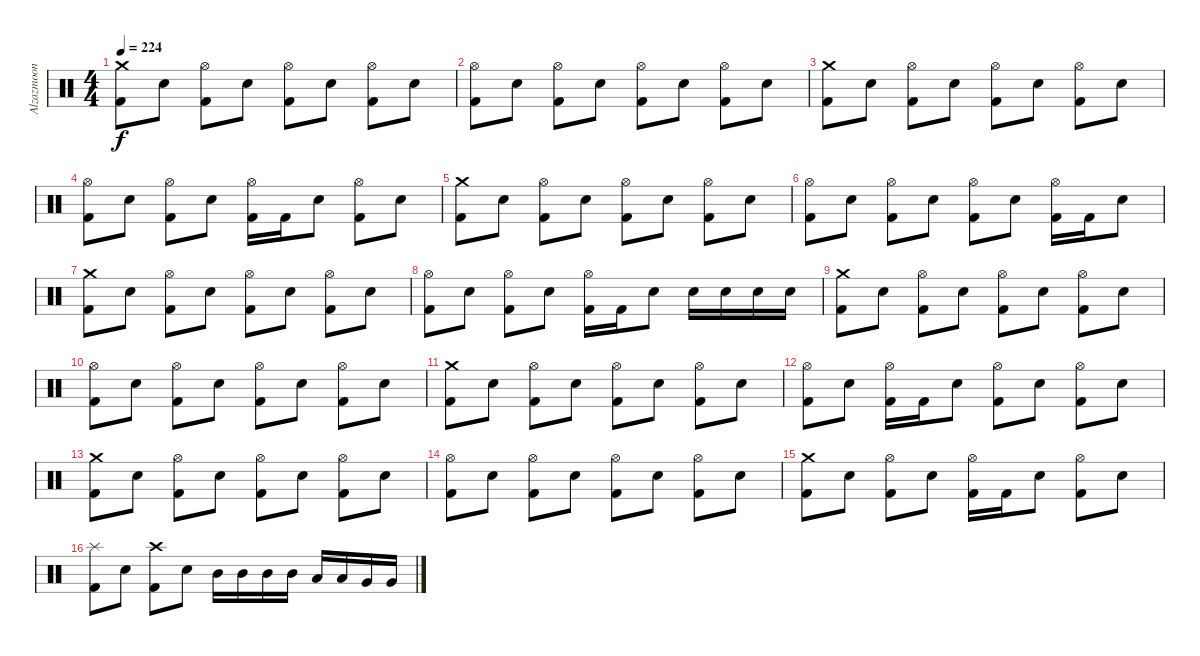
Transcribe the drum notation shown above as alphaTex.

\track ("Alzazmoon" "Alzazmoon") {instrument percussion}
\staff {score}
\articulation defaults
\ts (4 4)
\tempo 224
\clef neutral
\ks c
("Crash medium (hit)" "Kick (hit) 2").8{dy f} "Snare (hit) 2".8 ("Hi-Hat (open)" "Kick (hit) 2").8 "Snare (hit) 2".8 ("Hi-Hat (open)" "Kick (hit) 2").8 "Snare (hit) 2".8 ("Hi-Hat (open)" "Kick (hit) 2").8 "Snare (hit) 2".8 |
("Hi-Hat (open)" "Kick (hit) 2").8 "Snare (hit) 2".8 ("Hi-Hat (open)" "Kick (hit) 2").8 "Snare (hit) 2".8 ("Hi-Hat (open)" "Kick (hit) 2").8 "Snare (hit) 2".8 ("Hi-Hat (open)" "Kick (hit) 2").8 "Snare (hit) 2".8 |
("Crash medium (hit)" "Kick (hit) 2").8 "Snare (hit) 2".8 ("Hi-Hat (open)" "Kick (hit) 2").8 "Snare (hit) 2".8 ("Hi-Hat (open)" "Kick (hit) 2").8 "Snare (hit) 2".8 ("Hi-Hat (open)" "Kick (hit) 2").8 "Snare (hit) 2".8 |
("Hi-Hat (open)" "Kick (hit) 2").8 "Snare (hit) 2".8 ("Hi-Hat (open)" "Kick (hit) 2").8 "Snare (hit) 2".8 ("Hi-Hat (open)" "Kick (hit) 2").16 "Kick (hit) 2".16 "Snare (hit) 2".8 ("Hi-Hat (open)" "Kick (hit) 2").8 "Snare (hit) 2".8 |
("Crash medium (hit)" "Kick (hit) 2").8 "Snare (hit) 2".8 ("Hi-Hat (open)" "Kick (hit) 2").8 "Snare (hit) 2".8 ("Hi-Hat (open)" "Kick (hit) 2").8 "Snare (hit) 2".8 ("Hi-Hat (open)" "Kick (hit) 2").8 "Snare (hit) 2".8 |
("Hi-Hat (open)" "Kick (hit) 2").8 "Snare (hit) 2".8 ("Hi-Hat (open)" "Kick (hit) 2").8 "Snare (hit) 2".8 ("Hi-Hat (open)" "Kick (hit) 2").8 "Snare (hit) 2".8 ("Hi-Hat (open)" "Kick (hit) 2").16 "Kick (hit) 2".16 "Snare (hit) 2".8 |
("Crash medium (hit)" "Kick (hit) 2").8 "Snare (hit) 2".8 ("Hi-Hat (open)" "Kick (hit) 2").8 "Snare (hit) 2".8 ("Hi-Hat (open)" "Kick (hit) 2").8 "Snare (hit) 2".8 ("Hi-Hat (open)" "Kick (hit) 2").8 "Snare (hit) 2".8 |
("Hi-Hat (open)" "Kick (hit) 2").8 "Snare (hit) 2".8 ("Hi-Hat (open)" "Kick (hit) 2").8 "Snare (hit) 2".8 ("Hi-Hat (open)" "Kick (hit) 2").16 "Kick (hit) 2".16 "Snare (hit) 2".8 "Snare (hit) 2".16 "Snare (hit) 2".16 "Snare (hit) 2".16 "Snare (hit) 2".16 |
("Crash medium (hit)" "Kick (hit) 2").8 "Snare (hit) 2".8 ("Hi-Hat (open)" "Kick (hit) 2").8 "Snare (hit) 2".8 ("Hi-Hat (open)" "Kick (hit) 2").8 "Snare (hit) 2".8 ("Hi-Hat (open)" "Kick (hit) 2").8 "Snare (hit) 2".8 |
("Hi-Hat (open)" "Kick (hit) 2").8 "Snare (hit) 2".8 ("Hi-Hat (open)" "Kick (hit) 2").8 "Snare (hit) 2".8 ("Hi-Hat (open)" "Kick (hit) 2").8 "Snare (hit) 2".8 ("Hi-Hat (open)" "Kick (hit) 2").8 "Snare (hit) 2".8 |
("Crash medium (hit)" "Kick (hit) 2").8 "Snare (hit) 2".8 ("Hi-Hat (open)" "Kick (hit) 2").8 "Snare (hit) 2".8 ("Hi-Hat (open)" "Kick (hit) 2").8 "Snare (hit) 2".8 ("Hi-Hat (open)" "Kick (hit) 2").8 "Snare (hit) 2".8 |
("Hi-Hat (open)" "Kick (hit) 2").8 "Snare (hit) 2".8 ("Hi-Hat (open)" "Kick (hit) 2").16 "Kick (hit) 2".16 "Snare (hit) 2".8 ("Hi-Hat (open)" "Kick (hit) 2").8 "Snare (hit) 2".8 ("Hi-Hat (open)" "Kick (hit) 2").8 "Snare (hit) 2".8 |
("Crash medium (hit)" "Kick (hit) 2").8 "Snare (hit) 2".8 ("Hi-Hat (open)" "Kick (hit) 2").8 "Snare (hit) 2".8 ("Hi-Hat (open)" "Kick (hit) 2").8 "Snare (hit) 2".8 ("Hi-Hat (open)" "Kick (hit) 2").8 "Snare (hit) 2".8 |
("Hi-Hat (open)" "Kick (hit) 2").8 "Snare (hit) 2".8 ("Hi-Hat (open)" "Kick (hit) 2").8 "Snare (hit) 2".8 ("Hi-Hat (open)" "Kick (hit) 2").8 "Snare (hit) 2".8 ("Hi-Hat (open)" "Kick (hit) 2").8 "Snare (hit) 2".8 |
("Crash medium (hit)" "Kick (hit) 2").8 "Snare (hit) 2".8 ("Hi-Hat (open)" "Kick (hit) 2").8 "Snare (hit) 2".8 ("Hi-Hat (open)" "Kick (hit) 2").16 "Kick (hit) 2".16 "Snare (hit) 2".8 ("Hi-Hat (open)" "Kick (hit) 2").8 "Snare (hit) 2".8 |
("Splash (hit)" "Kick (hit) 2").8 "Snare (hit) 2".8 ("Crash high (hit)" "Kick (hit) 2").8 "Snare (hit) 2".8 "Mid Tom (hit)".16 "Mid Tom (hit)".16 "Mid Tom (hit)".16 "Mid Tom (hit)".16 "Low Tom (hit)".16 "Low Tom (hit)".16 "Very Low Tom (hit)".16 "Very Low Tom (hit)".16
